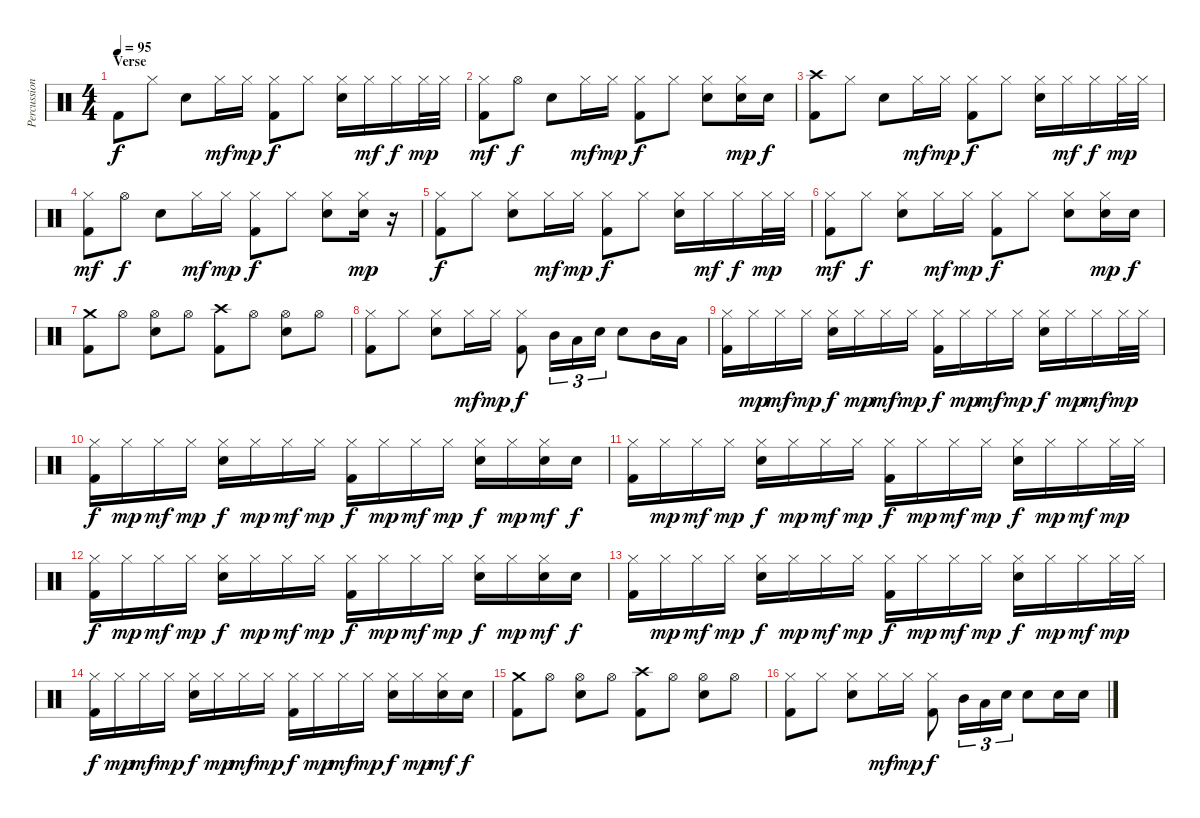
\track ("Percussion" "Percussion") {instrument percussion}
\staff {score}
\articulation defaults
\ts (4 4)
\section ("" "Verse")
\tempo 95
\clef neutral
\ks c "Kick (hit) 2".8{dy f} "Hi-Hat (closed)".8 "Snare (hit) 2".8 "Hi-Hat (closed)".16{dy mf} "Hi-Hat (closed)".16{dy mp}
("Hi-Hat (closed)" "Kick (hit) 2").8{dy f} "Hi-Hat (closed)".8 ("Hi-Hat (closed)" "Snare (hit) 2").16 "Hi-Hat (closed)".16{dy mf} "Hi-Hat (closed)".16{dy f} "Hi-Hat (closed)".32{dy mp} "Hi-Hat (closed)".32 |
("Hi-Hat (closed)" "Kick (hit) 2").8{dy mf} "Hi-Hat (open)".8{dy f} "Snare (hit) 2".8 "Hi-Hat (closed)".16{dy mf} "Hi-Hat (closed)".16{dy mp} ("Hi-Hat (closed)" "Kick (hit) 2").8{dy f} "Hi-Hat (closed)".8 ("Hi-Hat (closed)" "Snare (hit) 2").8 ("Hi-Hat (closed)" "Snare (hit) 2").16{dy mp} "Snare (hit) 2".16{dy f} |
("Crash high (hit)" "Kick (hit) 2").8 "Hi-Hat (closed)".8 "Snare (hit) 2".8 "Hi-Hat (closed)".16{dy mf} "Hi-Hat (closed)".16{dy mp} ("Hi-Hat (closed)" "Kick (hit) 2").8{dy f} "Hi-Hat (closed)".8 ("Hi-Hat (closed)" "Snare (hit) 2").16 "Hi-Hat (closed)".16{dy mf} "Hi-Hat (closed)".16{dy f} "Hi-Hat (closed)".32{dy mp} "Hi-Hat (closed)".32 |
("Hi-Hat (closed)" "Kick (hit) 2").8{dy mf} "Hi-Hat (open)".8{dy f} "Snare (hit) 2".8 "Hi-Hat (closed)".16{dy mf} "Hi-Hat (closed)".16{dy mp} ("Hi-Hat (closed)" "Kick (hit) 2").8{dy f} "Hi-Hat (closed)".8 ("Hi-Hat (closed)" "Snare (hit) 2").8 ("Hi-Hat (closed)" "Snare (hit) 2").16{dy mp} r.16 |
("Hi-Hat (closed)" "Kick (hit) 2").8{dy f} "Hi-Hat (closed)".8 ("Hi-Hat (closed)" "Snare (hit) 2").8 "Hi-Hat (closed)".16{dy mf} "Hi-Hat (closed)".16{dy mp} ("Hi-Hat (closed)" "Kick (hit) 2").8{dy f} "Hi-Hat (closed)".8 ("Hi-Hat (closed)" "Snare (hit) 2").16 "Hi-Hat (closed)".16{dy mf} "Hi-Hat (closed)".16{dy f} "Hi-Hat (closed)".32{dy mp} "Hi-Hat (closed)".32 |
("Hi-Hat (closed)" "Kick (hit) 2").8{dy mf} "Hi-Hat (closed)".8{dy f} ("Hi-Hat (closed)" "Snare (hit) 2").8 "Hi-Hat (closed)".16{dy mf} "Hi-Hat (closed)".16{dy mp} ("Hi-Hat (closed)" "Kick (hit) 2").8{dy f} "Hi-Hat (closed)".8 ("Hi-Hat (closed)" "Snare (hit) 2").8 ("Hi-Hat (closed)" "Snare (hit) 2").16{dy mp} "Snare (hit) 2".16{dy f} |
("Crash medium (hit)" "Kick (hit) 2").8 "Hi-Hat (open)".8 ("Hi-Hat (open)" "Snare (hit) 2").8 "Hi-Hat (open)".8 ("Crash high (hit)" "Kick (hit) 2").8 "Hi-Hat (open)".8 ("Hi-Hat (open)" "Snare (hit) 2").8 "Hi-Hat (open)".8 |
("Hi-Hat (closed)" "Kick (hit) 2").8 "Hi-Hat (closed)".8 ("Hi-Hat (closed)" "Snare (hit) 2").8 "Hi-Hat (closed)".16{dy mf} "Hi-Hat (closed)".16{dy mp} ("Hi-Hat (closed)" "Kick (hit) 2").8{dy f} "Mid Tom (hit)".16{tu (3 2)} "Low Tom (hit)".16{tu (3 2)} "Snare (hit) 2".16{tu (3 2)} "Snare (hit) 2".8 "Mid Tom (hit)".16 "Low Tom (hit)".16 |
("Hi-Hat (closed)" "Kick (hit) 2").16 "Hi-Hat (closed)".16{dy mp} "Hi-Hat (closed)".16{dy mf} "Hi-Hat (closed)".16{dy mp} ("Hi-Hat (closed)" "Snare (hit) 2").16{dy f} "Hi-Hat (closed)".16{dy mp} "Hi-Hat (closed)".16{dy mf} "Hi-Hat (closed)".16{dy mp} ("Hi-Hat (closed)" "Kick (hit) 2").16{dy f} "Hi-Hat (closed)".16{dy mp} "Hi-Hat (closed)".16{dy mf} "Hi-Hat (closed)".16{dy mp} ("Hi-Hat (closed)" "Snare (hit) 2").16{dy f} "Hi-Hat (closed)".16{dy mp} "Hi-Hat (closed)".16{dy mf} "Hi-Hat (closed)".32{dy mp} "Hi-Hat (closed)".32 |
("Hi-Hat (closed)" "Kick (hit) 2").16{dy f} "Hi-Hat (closed)".16{dy mp} "Hi-Hat (closed)".16{dy mf} "Hi-Hat (closed)".16{dy mp} ("Hi-Hat (closed)" "Snare (hit) 2").16{dy f} "Hi-Hat (closed)".16{dy mp} "Hi-Hat (closed)".16{dy mf} "Hi-Hat (closed)".16{dy mp} ("Hi-Hat (closed)" "Kick (hit) 2").16{dy f} "Hi-Hat (closed)".16{dy mp} "Hi-Hat (closed)".16{dy mf} "Hi-Hat (closed)".16{dy mp} ("Hi-Hat (closed)" "Snare (hit) 2").16{dy f} "Hi-Hat (closed)".16{dy mp} ("Hi-Hat (closed)" "Snare (hit) 2").16{dy mf} "Snare (hit) 2".16{dy f} |
("Hi-Hat (closed)" "Kick (hit) 2").16 "Hi-Hat (closed)".16{dy mp} "Hi-Hat (closed)".16{dy mf} "Hi-Hat (closed)".16{dy mp} ("Hi-Hat (closed)" "Snare (hit) 2").16{dy f} "Hi-Hat (closed)".16{dy mp} "Hi-Hat (closed)".16{dy mf} "Hi-Hat (closed)".16{dy mp} ("Hi-Hat (closed)" "Kick (hit) 2").16{dy f} "Hi-Hat (closed)".16{dy mp} "Hi-Hat (closed)".16{dy mf} "Hi-Hat (closed)".16{dy mp} ("Hi-Hat (closed)" "Snare (hit) 2").16{dy f} "Hi-Hat (closed)".16{dy mp} "Hi-Hat (closed)".16{dy mf} "Hi-Hat (closed)".32{dy mp} "Hi-Hat (closed)".32 |
("Hi-Hat (closed)" "Kick (hit) 2").16{dy f} "Hi-Hat (closed)".16{dy mp} "Hi-Hat (closed)".16{dy mf} "Hi-Hat (closed)".16{dy mp} ("Hi-Hat (closed)" "Snare (hit) 2").16{dy f} "Hi-Hat (closed)".16{dy mp} "Hi-Hat (closed)".16{dy mf} "Hi-Hat (closed)".16{dy mp} ("Hi-Hat (closed)" "Kick (hit) 2").16{dy f} "Hi-Hat (closed)".16{dy mp} "Hi-Hat (closed)".16{dy mf} "Hi-Hat (closed)".16{dy mp} ("Hi-Hat (closed)" "Snare (hit) 2").16{dy f} "Hi-Hat (closed)".16{dy mp} ("Hi-Hat (closed)" "Snare (hit) 2").16{dy mf} "Snare (hit) 2".16{dy f} |
("Hi-Hat (closed)" "Kick (hit) 2").16 "Hi-Hat (closed)".16{dy mp} "Hi-Hat (closed)".16{dy mf} "Hi-Hat (closed)".16{dy mp} ("Hi-Hat (closed)" "Snare (hit) 2").16{dy f} "Hi-Hat (closed)".16{dy mp} "Hi-Hat (closed)".16{dy mf} "Hi-Hat (closed)".16{dy mp} ("Hi-Hat (closed)" "Kick (hit) 2").16{dy f} "Hi-Hat (closed)".16{dy mp} "Hi-Hat (closed)".16{dy mf} "Hi-Hat (closed)".16{dy mp} ("Hi-Hat (closed)" "Snare (hit) 2").16{dy f} "Hi-Hat (closed)".16{dy mp} "Hi-Hat (closed)".16{dy mf} "Hi-Hat (closed)".32{dy mp} "Hi-Hat (closed)".32 |
("Hi-Hat (closed)" "Kick (hit) 2").16{dy f} "Hi-Hat (closed)".16{dy mp} "Hi-Hat (closed)".16{dy mf} "Hi-Hat (closed)".16{dy mp} ("Hi-Hat (closed)" "Snare (hit) 2").16{dy f} "Hi-Hat (closed)".16{dy mp} "Hi-Hat (closed)".16{dy mf} "Hi-Hat (closed)".16{dy mp} ("Hi-Hat (closed)" "Kick (hit) 2").16{dy f} "Hi-Hat (closed)".16{dy mp} "Hi-Hat (closed)".16{dy mf} "Hi-Hat (closed)".16{dy mp} ("Hi-Hat (closed)" "Snare (hit) 2").16{dy f} "Hi-Hat (closed)".16{dy mp} ("Hi-Hat (closed)" "Snare (hit) 2").16{dy mf} "Snare (hit) 2".16{dy f} |
("Crash medium (hit)" "Kick (hit) 2").8 "Hi-Hat (open)".8 ("Hi-Hat (open)" "Snare (hit) 2").8 "Hi-Hat (open)".8 ("Crash high (hit)" "Kick (hit) 2").8 "Hi-Hat (open)".8 ("Hi-Hat (open)" "Snare (hit) 2").8 "Hi-Hat (open)".8 |
("Hi-Hat (closed)" "Kick (hit) 2").8 "Hi-Hat (closed)".8 ("Hi-Hat (closed)" "Snare (hit) 2").8 "Hi-Hat (closed)".16{dy mf} "Hi-Hat (closed)".16{dy mp} ("Hi-Hat (closed)" "Kick (hit) 2").8{dy f} "Mid Tom (hit)".16{tu (3 2)} "Low Tom (hit)".16{tu (3 2)} "Snare (hit) 2".16{tu (3 2)} "Snare (hit) 2".8 "Snare (hit) 2".16 "Snare (hit) 2".16
